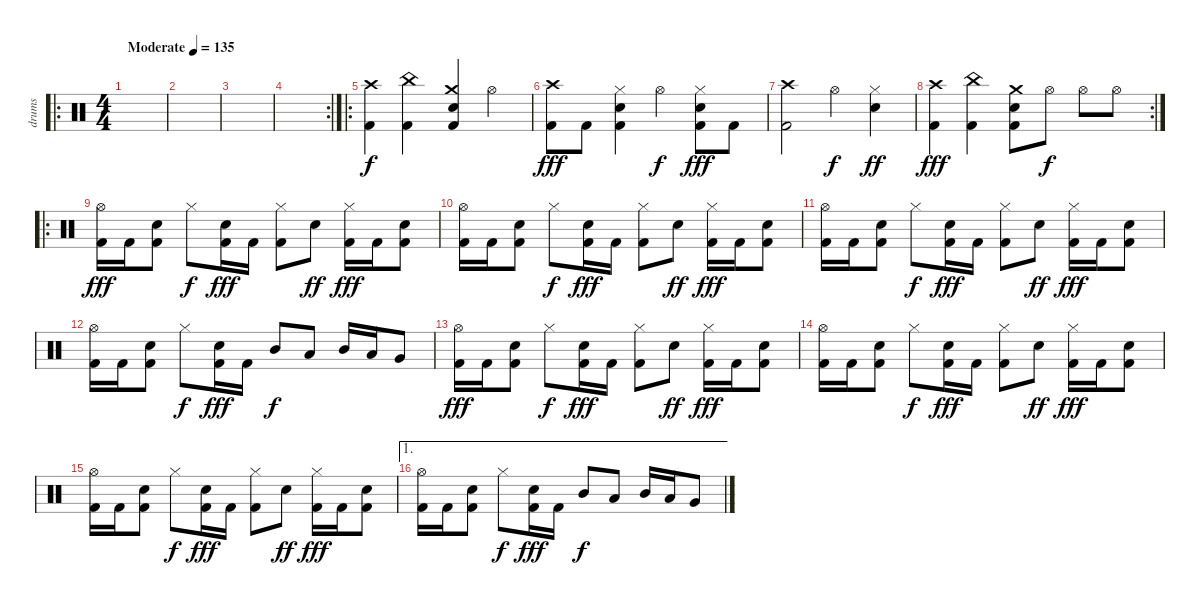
\track ("drums" "drums") {instrument percussion}
\staff {score}
\articulation defaults
\ro
\ts (4 4)
\tempo (135 "Moderate")
\clef neutral
\ks c
|
|
|
\rc 2
|
\ro
("Crash high (hit)" "Kick (hit) 2").4 ("China (hit)" "Kick (hit) 2").4 ("Crash medium (hit)" "Electric Snare (hit)" "Kick (hit) 2").4 "Hi-Hat (open)".4{dy f} |
("Crash high (hit)" "Kick (hit) 2").8{dy fff} "Kick (hit) 2".8 ("Hi-Hat (closed)" "Electric Snare (hit)" "Kick (hit) 2").4 "Hi-Hat (open)".4{dy f} ("Hi-Hat (closed)" "Electric Snare (hit)" "Kick (hit) 2").8{dy fff} "Kick (hit) 2".8 |
("Crash high (hit)" "Kick (hit) 2").2 "Hi-Hat (open)".4{dy f} ("Hi-Hat (closed)" "Electric Snare (hit)").4{dy ff} |
\rc 2
("Crash high (hit)" "Kick (hit) 2").4{dy fff} ("China (hit)" "Kick (hit) 2").4 ("Crash medium (hit)" "Electric Snare (hit)" "Kick (hit) 2").8 "Hi-Hat (open)".8{dy f} "Hi-Hat (open)".8 "Hi-Hat (open)".8 |
\ro
("Hi-Hat (open)" "Kick (hit) 2").16{dy fff} "Kick (hit) 2".16 ("Electric Snare (hit)" "Kick (hit) 2").8 "Hi-Hat (closed)".8{dy f} ("Electric Snare (hit)" "Kick (hit) 2").16{dy fff} "Kick (hit) 2".16 ("Hi-Hat (closed)" "Kick (hit) 2").8 "Electric Snare (hit)".8{dy ff} ("Hi-Hat (closed)" "Kick (hit) 2").16{dy fff} "Kick (hit) 2".16 ("Electric Snare (hit)" "Kick (hit) 2").8 |
("Hi-Hat (open)" "Kick (hit) 2").16 "Kick (hit) 2".16 ("Electric Snare (hit)" "Kick (hit) 2").8 "Hi-Hat (closed)".8{dy f} ("Electric Snare (hit)" "Kick (hit) 2").16{dy fff} "Kick (hit) 2".16 ("Hi-Hat (closed)" "Kick (hit) 2").8 "Electric Snare (hit)".8{dy ff} ("Hi-Hat (closed)" "Kick (hit) 2").16{dy fff} "Kick (hit) 2".16 ("Electric Snare (hit)" "Kick (hit) 2").8 |
("Hi-Hat (open)" "Kick (hit) 2").16 "Kick (hit) 2".16 ("Electric Snare (hit)" "Kick (hit) 2").8 "Hi-Hat (closed)".8{dy f} ("Electric Snare (hit)" "Kick (hit) 2").16{dy fff} "Kick (hit) 2".16 ("Hi-Hat (closed)" "Kick (hit) 2").8 "Electric Snare (hit)".8{dy ff} ("Hi-Hat (closed)" "Kick (hit) 2").16{dy fff} "Kick (hit) 2".16 ("Electric Snare (hit)" "Kick (hit) 2").8 |
("Hi-Hat (open)" "Kick (hit) 2").16 "Kick (hit) 2".16 ("Electric Snare (hit)" "Kick (hit) 2").8 "Hi-Hat (closed)".8{dy f} ("Electric Snare (hit)" "Kick (hit) 2").16{dy fff} "Kick (hit) 2".16 "Mid Tom (hit)".8{dy f} "Low Tom (hit)".8 "Mid Tom (hit)".16 "Low Tom (hit)".16 "Very Low Tom (hit)".8 |
("Hi-Hat (open)" "Kick (hit) 2").16{dy fff} "Kick (hit) 2".16 ("Electric Snare (hit)" "Kick (hit) 2").8 "Hi-Hat (closed)".8{dy f} ("Electric Snare (hit)" "Kick (hit) 2").16{dy fff} "Kick (hit) 2".16 ("Hi-Hat (closed)" "Kick (hit) 2").8 "Electric Snare (hit)".8{dy ff} ("Hi-Hat (closed)" "Kick (hit) 2").16{dy fff} "Kick (hit) 2".16 ("Electric Snare (hit)" "Kick (hit) 2").8 |
("Hi-Hat (open)" "Kick (hit) 2").16 "Kick (hit) 2".16 ("Electric Snare (hit)" "Kick (hit) 2").8 "Hi-Hat (closed)".8{dy f} ("Electric Snare (hit)" "Kick (hit) 2").16{dy fff} "Kick (hit) 2".16 ("Hi-Hat (closed)" "Kick (hit) 2").8 "Electric Snare (hit)".8{dy ff} ("Hi-Hat (closed)" "Kick (hit) 2").16{dy fff} "Kick (hit) 2".16 ("Electric Snare (hit)" "Kick (hit) 2").8 |
("Hi-Hat (open)" "Kick (hit) 2").16 "Kick (hit) 2".16 ("Electric Snare (hit)" "Kick (hit) 2").8 "Hi-Hat (closed)".8{dy f} ("Electric Snare (hit)" "Kick (hit) 2").16{dy fff} "Kick (hit) 2".16 ("Hi-Hat (closed)" "Kick (hit) 2").8 "Electric Snare (hit)".8{dy ff} ("Hi-Hat (closed)" "Kick (hit) 2").16{dy fff} "Kick (hit) 2".16 ("Electric Snare (hit)" "Kick (hit) 2").8 |
\ae 1
("Hi-Hat (open)" "Kick (hit) 2").16 "Kick (hit) 2".16 ("Electric Snare (hit)" "Kick (hit) 2").8 "Hi-Hat (closed)".8{dy f} ("Electric Snare (hit)" "Kick (hit) 2").16{dy fff} "Kick (hit) 2".16 "Mid Tom (hit)".8{dy f} "Low Tom (hit)".8 "Mid Tom (hit)".16 "Low Tom (hit)".16 "Very Low Tom (hit)".8
